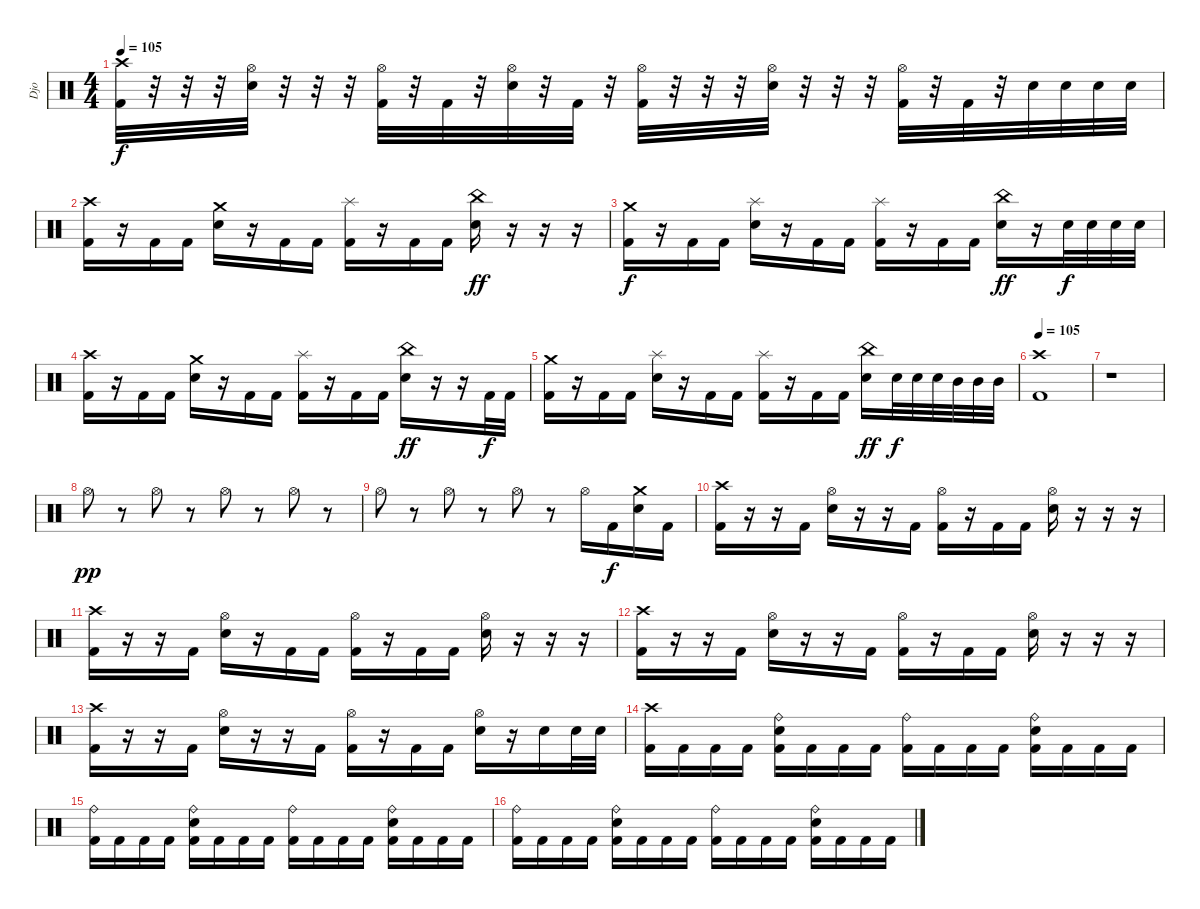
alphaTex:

\track ("Djo" "Djo") {instrument percussion}
\staff {score}
\articulation defaults
\ts (4 4)
\tempo 105
\clef neutral
\ks c
("Crash high (hit)" "Kick (hit) 2").32{dy f} r.32 r.32 r.32 ("Hi-Hat (open)" "Snare (hit) 2").32 r.32 r.32 r.32 ("Hi-Hat (open)" "Kick (hit) 2").32 r.32 "Kick (hit) 2".32 r.32 ("Hi-Hat (open)" "Snare (hit) 2").32 r.32 "Kick (hit) 2".32 r.32 ("Hi-Hat (open)" "Kick (hit) 2").32 r.32 r.32 r.32 ("Hi-Hat (open)" "Snare (hit) 2").32 r.32 r.32 r.32 ("Hi-Hat (open)" "Kick (hit) 2").32 r.32 "Kick (hit) 2".32 r.32 "Snare (hit) 2".32 "Snare (hit) 2".32 "Snare (hit) 2".32 "Snare (hit) 2".32 |
("Crash high (hit)" "Kick (hit) 2").16 r.16 "Kick (hit) 2".16 "Kick (hit) 2".16 ("Crash medium (hit)" "Snare (hit) 2").16 r.16 "Kick (hit) 2".16 "Kick (hit) 2".16 ("Splash (hit)" "Kick (hit) 2").16 r.16 "Kick (hit) 2".16 "Kick (hit) 2".16 ("China (hit)" "Snare (hit) 2").16{dy ff} r.16 r.16 r.16 |
("Crash medium (hit)" "Kick (hit) 2").16{dy f} r.16 "Kick (hit) 2".16 "Kick (hit) 2".16 ("Splash (hit)" "Snare (hit) 2").16 r.16 "Kick (hit) 2".16 "Kick (hit) 2".16 ("Splash (hit)" "Kick (hit) 2").16 r.16 "Kick (hit) 2".16 "Kick (hit) 2".16 ("China (hit)" "Snare (hit) 2").16{dy ff} r.16 "Snare (hit) 2".32{dy f} "Snare (hit) 2".32 "Snare (hit) 2".32 "Snare (hit) 2".32 |
("Crash high (hit)" "Kick (hit) 2").16 r.16 "Kick (hit) 2".16 "Kick (hit) 2".16 ("Crash medium (hit)" "Snare (hit) 2").16 r.16 "Kick (hit) 2".16 "Kick (hit) 2".16 ("Splash (hit)" "Kick (hit) 2").16 r.16 "Kick (hit) 2".16 "Kick (hit) 2".16 ("China (hit)" "Snare (hit) 2").16{dy ff} r.16 r.16 "Kick (hit) 2".32{dy f} "Kick (hit) 2".32 |
("Crash medium (hit)" "Kick (hit) 2").16 r.16 "Kick (hit) 2".16 "Kick (hit) 2".16 ("Splash (hit)" "Snare (hit) 2").16 r.16 "Kick (hit) 2".16 "Kick (hit) 2".16 ("Splash (hit)" "Kick (hit) 2").16 r.16 "Kick (hit) 2".16 "Kick (hit) 2".16 ("China (hit)" "Snare (hit) 2").16{dy ff} "Snare (hit) 2".32{dy f} "Snare (hit) 2".32 "Snare (hit) 2".32 "Mid Tom (hit)".32 "Mid Tom (hit)".32 "Mid Tom (hit)".32 |
\tempo 105
("Crash high (hit)" "Kick (hit) 2").1 |
r.1 |
"Hi-Hat (open)".8{dy pp} r.8 "Hi-Hat (open)".8 r.8 "Hi-Hat (open)".8 r.8 "Hi-Hat (open)".8 r.8 |
"Hi-Hat (open)".8 r.8 "Hi-Hat (open)".8 r.8 "Hi-Hat (open)".8 r.8 "Hi-Hat (open)".16 "Kick (hit) 2".16{dy f} ("Crash medium (hit)" "Snare (hit) 2").16 "Kick (hit) 2".16 |
("Crash high (hit)" "Kick (hit) 2").16 r.16 r.16 "Kick (hit) 2".16 ("Hi-Hat (open)" "Snare (hit) 2").16 r.16 r.16 "Kick (hit) 2".16 ("Hi-Hat (open)" "Kick (hit) 2").16 r.16 "Kick (hit) 2".16 "Kick (hit) 2".16 ("Hi-Hat (open)" "Snare (hit) 2").16 r.16 r.16 r.16 |
("Crash high (hit)" "Kick (hit) 2").16 r.16 r.16 "Kick (hit) 2".16 ("Hi-Hat (open)" "Snare (hit) 2").16 r.16 "Kick (hit) 2".16 "Kick (hit) 2".16 ("Hi-Hat (open)" "Kick (hit) 2").16 r.16 "Kick (hit) 2".16 "Kick (hit) 2".16 ("Hi-Hat (open)" "Snare (hit) 2").16 r.16 r.16 r.16 |
("Crash high (hit)" "Kick (hit) 2").16 r.16 r.16 "Kick (hit) 2".16 ("Hi-Hat (open)" "Snare (hit) 2").16 r.16 r.16 "Kick (hit) 2".16 ("Hi-Hat (open)" "Kick (hit) 2").16 r.16 "Kick (hit) 2".16 "Kick (hit) 2".16 ("Hi-Hat (open)" "Snare (hit) 2").16 r.16 r.16 r.16 |
("Crash high (hit)" "Kick (hit) 2").16 r.16 r.16 "Kick (hit) 2".16 ("Hi-Hat (open)" "Snare (hit) 2").16 r.16 r.16 "Kick (hit) 2".16 ("Hi-Hat (open)" "Kick (hit) 2").16 r.16 "Kick (hit) 2".16 "Kick (hit) 2".16 ("Hi-Hat (open)" "Snare (hit) 2").16 r.16 "Snare (hit) 2".16 "Snare (hit) 2".32 "Snare (hit) 2".32 |
("Crash high (hit)" "Kick (hit) 2").16 "Kick (hit) 2".16 "Kick (hit) 2".16 "Kick (hit) 2".16 ("Ride (bell)" "Snare (hit) 2" "Kick (hit) 2").16 "Kick (hit) 2".16 "Kick (hit) 2".16 "Kick (hit) 2".16 ("Ride (bell)" "Kick (hit) 2").16 "Kick (hit) 2".16 "Kick (hit) 2".16 "Kick (hit) 2".16 ("Ride (bell)" "Snare (hit) 2" "Kick (hit) 2").16 "Kick (hit) 2".16 "Kick (hit) 2".16 "Kick (hit) 2".16 |
("Ride (bell)" "Kick (hit) 2").16 "Kick (hit) 2".16 "Kick (hit) 2".16 "Kick (hit) 2".16 ("Ride (bell)" "Snare (hit) 2" "Kick (hit) 2").16 "Kick (hit) 2".16 "Kick (hit) 2".16 "Kick (hit) 2".16 ("Ride (bell)" "Kick (hit) 2").16 "Kick (hit) 2".16 "Kick (hit) 2".16 "Kick (hit) 2".16 ("Ride (bell)" "Snare (hit) 2" "Kick (hit) 2").16 "Kick (hit) 2".16 "Kick (hit) 2".16 "Kick (hit) 2".16 |
("Ride (bell)" "Kick (hit) 2").16 "Kick (hit) 2".16 "Kick (hit) 2".16 "Kick (hit) 2".16 ("Ride (bell)" "Snare (hit) 2" "Kick (hit) 2").16 "Kick (hit) 2".16 "Kick (hit) 2".16 "Kick (hit) 2".16 ("Ride (bell)" "Kick (hit) 2").16 "Kick (hit) 2".16 "Kick (hit) 2".16 "Kick (hit) 2".16 ("Ride (bell)" "Snare (hit) 2" "Kick (hit) 2").16 "Kick (hit) 2".16 "Kick (hit) 2".16 "Kick (hit) 2".16
